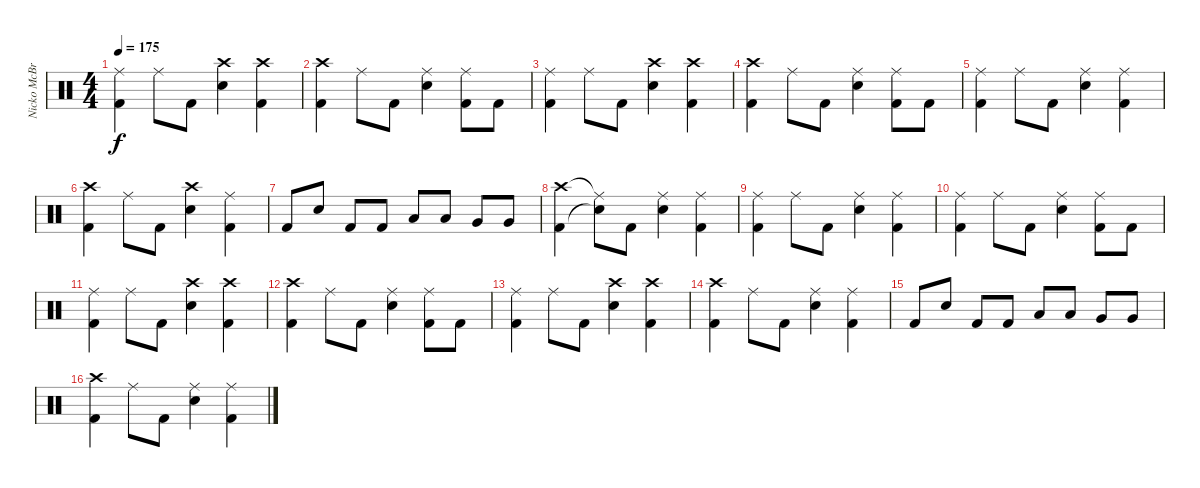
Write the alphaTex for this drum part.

\track ("Nicko McBrian" "Nicko McBr") {instrument percussion}
\staff {score}
\articulation defaults
\ts (4 4)
\tempo 175
\clef neutral
\ks c
("Ride (middle)" "Kick (hit) 2").4{dy f} "Ride (middle)".8 "Kick (hit) 2".8 ("Crash high (hit)" "Electric Snare (hit)").4 ("Crash high (hit)" "Kick (hit) 2").4 |
("Crash high (hit)" "Kick (hit) 2").4 "Ride (middle)".8 "Kick (hit) 2".8 ("Ride (middle)" "Electric Snare (hit)").4 ("Ride (middle)" "Kick (hit) 2").8 "Kick (hit) 2".8 |
("Ride (middle)" "Kick (hit) 2").4 "Ride (middle)".8 "Kick (hit) 2".8 ("Crash high (hit)" "Electric Snare (hit)").4 ("Crash high (hit)" "Kick (hit) 2").4 |
("Crash high (hit)" "Kick (hit) 2").4 "Ride (middle)".8 "Kick (hit) 2".8 ("Ride (middle)" "Electric Snare (hit)").4 ("Ride (middle)" "Kick (hit) 2").8 "Kick (hit) 2".8 |
("Ride (middle)" "Kick (hit) 2").4 "Ride (middle)".8 "Kick (hit) 2".8 ("Ride (middle)" "Electric Snare (hit)").4 ("Ride (middle)" "Kick (hit) 2").4 |
("Crash high (hit)" "Kick (hit) 2").4 "Ride (middle)".8 "Kick (hit) 2".8 ("Crash high (hit)" "Electric Snare (hit)").4 ("Ride (middle)" "Kick (hit) 2").4 |
"Kick (hit) 2".8 "Electric Snare (hit)".8 "Kick (hit) 2".8 "Kick (hit) 2".8 "Low Tom (hit)".8 "Low Tom (hit)".8 "Very Low Tom (hit)".8 "Very Low Tom (hit)".8 |
("Crash high (hit)" "Kick (hit) 2").4 ("Ride (middle)"{t} "Snare (hit)"{t}).8 "Kick (hit) 2".8 ("Ride (middle)" "Electric Snare (hit)").4 ("Ride (middle)" "Kick (hit) 2").4 |
("Ride (middle)" "Kick (hit) 2").4 "Ride (middle)".8 "Kick (hit) 2".8 ("Ride (middle)" "Electric Snare (hit)").4 ("Ride (middle)" "Kick (hit) 2").4 |
("Ride (middle)" "Kick (hit) 2").4 "Ride (middle)".8 "Kick (hit) 2".8 ("Ride (middle)" "Electric Snare (hit)").4 ("Ride (middle)" "Kick (hit) 2").8 "Kick (hit) 2".8 |
("Ride (middle)" "Kick (hit) 2").4 "Ride (middle)".8 "Kick (hit) 2".8 ("Crash high (hit)" "Electric Snare (hit)").4 ("Crash high (hit)" "Kick (hit) 2").4 |
("Crash high (hit)" "Kick (hit) 2").4 "Ride (middle)".8 "Kick (hit) 2".8 ("Ride (middle)" "Electric Snare (hit)").4 ("Ride (middle)" "Kick (hit) 2").8 "Kick (hit) 2".8 |
("Ride (middle)" "Kick (hit) 2").4 "Ride (middle)".8 "Kick (hit) 2".8 ("Crash high (hit)" "Electric Snare (hit)").4 ("Crash high (hit)" "Kick (hit) 2").4 |
("Crash high (hit)" "Kick (hit) 2").4 "Ride (middle)".8 "Kick (hit) 2".8 ("Ride (middle)" "Electric Snare (hit)").4 ("Ride (middle)" "Kick (hit) 2").4 |
"Kick (hit) 2".8 "Electric Snare (hit)".8 "Kick (hit) 2".8 "Kick (hit) 2".8 "Low Tom (hit)".8 "Low Tom (hit)".8 "Very Low Tom (hit)".8 "Very Low Tom (hit)".8 |
("Crash high (hit)" "Kick (hit) 2").4 "Ride (middle)".8 "Kick (hit) 2".8 ("Ride (middle)" "Electric Snare (hit)").4 ("Ride (middle)" "Kick (hit) 2").4
